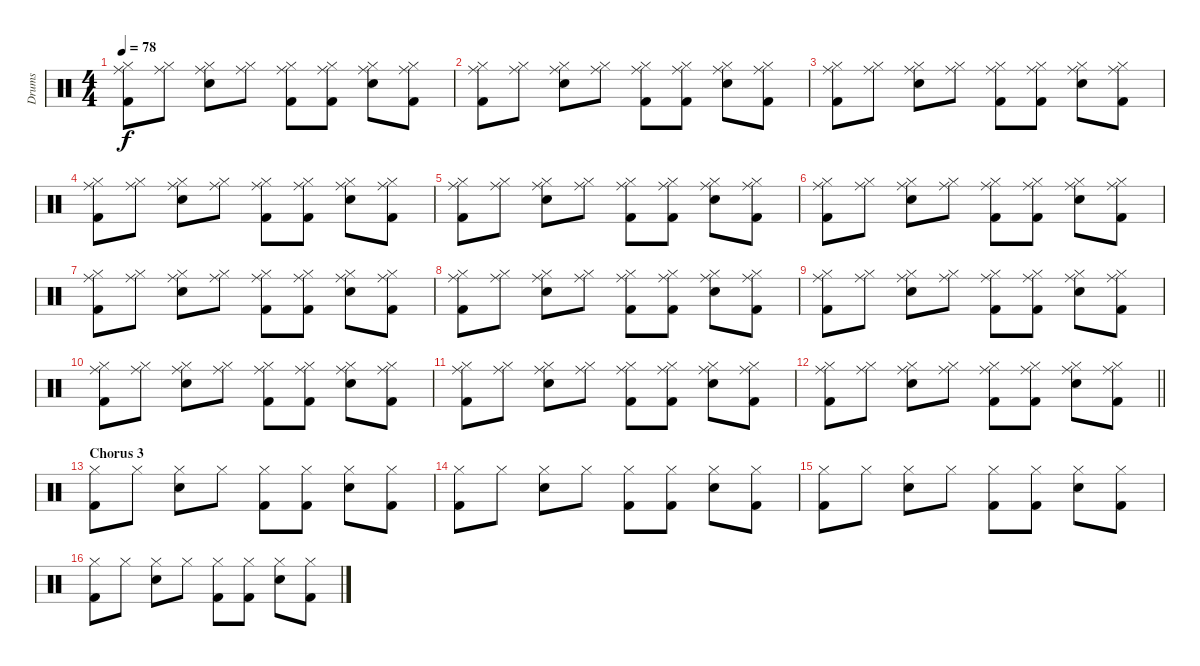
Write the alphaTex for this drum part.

\track ("Drums" "Drums") {instrument percussion}
\staff {score}
\articulation defaults
\ts (4 4)
\tempo 78
\clef neutral
\ks c
("Ride (middle)" "Hi-Hat (closed)" "Kick (hit) 2").8{dy f} ("Ride (middle)" "Hi-Hat (closed)").8 ("Ride (middle)" "Hi-Hat (closed)" "Snare (hit) 2").8 ("Ride (middle)" "Hi-Hat (closed)").8 ("Ride (middle)" "Hi-Hat (closed)" "Kick (hit) 2").8 ("Ride (middle)" "Hi-Hat (closed)" "Kick (hit) 2").8 ("Ride (middle)" "Hi-Hat (closed)" "Snare (hit) 2").8 ("Ride (middle)" "Hi-Hat (closed)" "Kick (hit) 2").8 |
("Ride (middle)" "Hi-Hat (closed)" "Kick (hit) 2").8 ("Ride (middle)" "Hi-Hat (closed)").8 ("Ride (middle)" "Hi-Hat (closed)" "Snare (hit) 2").8 ("Ride (middle)" "Hi-Hat (closed)").8 ("Ride (middle)" "Hi-Hat (closed)" "Kick (hit) 2").8 ("Ride (middle)" "Hi-Hat (closed)" "Kick (hit) 2").8 ("Ride (middle)" "Hi-Hat (closed)" "Snare (hit) 2").8 ("Ride (middle)" "Hi-Hat (closed)" "Kick (hit) 2").8 |
("Ride (middle)" "Hi-Hat (closed)" "Kick (hit) 2").8 ("Ride (middle)" "Hi-Hat (closed)").8 ("Ride (middle)" "Hi-Hat (closed)" "Snare (hit) 2").8 ("Ride (middle)" "Hi-Hat (closed)").8 ("Ride (middle)" "Hi-Hat (closed)" "Kick (hit) 2").8 ("Ride (middle)" "Hi-Hat (closed)" "Kick (hit) 2").8 ("Ride (middle)" "Hi-Hat (closed)" "Snare (hit) 2").8 ("Ride (middle)" "Hi-Hat (closed)" "Kick (hit) 2").8 |
("Ride (middle)" "Hi-Hat (closed)" "Kick (hit) 2").8 ("Ride (middle)" "Hi-Hat (closed)").8 ("Ride (middle)" "Hi-Hat (closed)" "Snare (hit) 2").8 ("Ride (middle)" "Hi-Hat (closed)").8 ("Ride (middle)" "Hi-Hat (closed)" "Kick (hit) 2").8 ("Ride (middle)" "Hi-Hat (closed)" "Kick (hit) 2").8 ("Ride (middle)" "Hi-Hat (closed)" "Snare (hit) 2").8 ("Ride (middle)" "Hi-Hat (closed)" "Kick (hit) 2").8 |
("Ride (middle)" "Hi-Hat (closed)" "Kick (hit) 2").8 ("Ride (middle)" "Hi-Hat (closed)").8 ("Ride (middle)" "Hi-Hat (closed)" "Snare (hit) 2").8 ("Ride (middle)" "Hi-Hat (closed)").8 ("Ride (middle)" "Hi-Hat (closed)" "Kick (hit) 2").8 ("Ride (middle)" "Hi-Hat (closed)" "Kick (hit) 2").8 ("Ride (middle)" "Hi-Hat (closed)" "Snare (hit) 2").8 ("Ride (middle)" "Hi-Hat (closed)" "Kick (hit) 2").8 |
("Ride (middle)" "Hi-Hat (closed)" "Kick (hit) 2").8 ("Ride (middle)" "Hi-Hat (closed)").8 ("Ride (middle)" "Hi-Hat (closed)" "Snare (hit) 2").8 ("Ride (middle)" "Hi-Hat (closed)").8 ("Ride (middle)" "Hi-Hat (closed)" "Kick (hit) 2").8 ("Ride (middle)" "Hi-Hat (closed)" "Kick (hit) 2").8 ("Ride (middle)" "Hi-Hat (closed)" "Snare (hit) 2").8 ("Ride (middle)" "Hi-Hat (closed)" "Kick (hit) 2").8 |
("Ride (middle)" "Hi-Hat (closed)" "Kick (hit) 2").8 ("Ride (middle)" "Hi-Hat (closed)").8 ("Ride (middle)" "Hi-Hat (closed)" "Snare (hit) 2").8 ("Ride (middle)" "Hi-Hat (closed)").8 ("Ride (middle)" "Hi-Hat (closed)" "Kick (hit) 2").8 ("Ride (middle)" "Hi-Hat (closed)" "Kick (hit) 2").8 ("Ride (middle)" "Hi-Hat (closed)" "Snare (hit) 2").8 ("Ride (middle)" "Hi-Hat (closed)" "Kick (hit) 2").8 |
("Ride (middle)" "Hi-Hat (closed)" "Kick (hit) 2").8 ("Ride (middle)" "Hi-Hat (closed)").8 ("Ride (middle)" "Hi-Hat (closed)" "Snare (hit) 2").8 ("Ride (middle)" "Hi-Hat (closed)").8 ("Ride (middle)" "Hi-Hat (closed)" "Kick (hit) 2").8 ("Ride (middle)" "Hi-Hat (closed)" "Kick (hit) 2").8 ("Ride (middle)" "Hi-Hat (closed)" "Snare (hit) 2").8 ("Ride (middle)" "Hi-Hat (closed)" "Kick (hit) 2").8 |
("Ride (middle)" "Hi-Hat (closed)" "Kick (hit) 2").8 ("Ride (middle)" "Hi-Hat (closed)").8 ("Ride (middle)" "Hi-Hat (closed)" "Snare (hit) 2").8 ("Ride (middle)" "Hi-Hat (closed)").8 ("Ride (middle)" "Hi-Hat (closed)" "Kick (hit) 2").8 ("Ride (middle)" "Hi-Hat (closed)" "Kick (hit) 2").8 ("Ride (middle)" "Hi-Hat (closed)" "Snare (hit) 2").8 ("Ride (middle)" "Hi-Hat (closed)" "Kick (hit) 2").8 |
("Ride (middle)" "Hi-Hat (closed)" "Kick (hit) 2").8 ("Ride (middle)" "Hi-Hat (closed)").8 ("Ride (middle)" "Hi-Hat (closed)" "Snare (hit) 2").8 ("Ride (middle)" "Hi-Hat (closed)").8 ("Ride (middle)" "Hi-Hat (closed)" "Kick (hit) 2").8 ("Ride (middle)" "Hi-Hat (closed)" "Kick (hit) 2").8 ("Ride (middle)" "Hi-Hat (closed)" "Snare (hit) 2").8 ("Ride (middle)" "Hi-Hat (closed)" "Kick (hit) 2").8 |
("Ride (middle)" "Hi-Hat (closed)" "Kick (hit) 2").8 ("Ride (middle)" "Hi-Hat (closed)").8 ("Ride (middle)" "Hi-Hat (closed)" "Snare (hit) 2").8 ("Ride (middle)" "Hi-Hat (closed)").8 ("Ride (middle)" "Hi-Hat (closed)" "Kick (hit) 2").8 ("Ride (middle)" "Hi-Hat (closed)" "Kick (hit) 2").8 ("Ride (middle)" "Hi-Hat (closed)" "Snare (hit) 2").8 ("Ride (middle)" "Hi-Hat (closed)" "Kick (hit) 2").8 |
\barLineRight lightlight
("Ride (middle)" "Hi-Hat (closed)" "Kick (hit) 2").8 ("Ride (middle)" "Hi-Hat (closed)").8 ("Ride (middle)" "Hi-Hat (closed)" "Snare (hit) 2").8 ("Ride (middle)" "Hi-Hat (closed)").8 ("Ride (middle)" "Hi-Hat (closed)" "Kick (hit) 2").8 ("Ride (middle)" "Hi-Hat (closed)" "Kick (hit) 2").8 ("Ride (middle)" "Hi-Hat (closed)" "Snare (hit) 2").8 ("Ride (middle)" "Hi-Hat (closed)" "Kick (hit) 2").8 |
\section ("" "Chorus 3")
("Hi-Hat (closed)" "Kick (hit) 2").8 "Hi-Hat (closed)".8 ("Hi-Hat (closed)" "Snare (hit) 2").8 "Hi-Hat (closed)".8 ("Hi-Hat (closed)" "Kick (hit) 2").8 ("Hi-Hat (closed)" "Kick (hit) 2").8 ("Hi-Hat (closed)" "Snare (hit) 2").8 ("Hi-Hat (closed)" "Kick (hit) 2").8 |
("Hi-Hat (closed)" "Kick (hit) 2").8 "Hi-Hat (closed)".8 ("Hi-Hat (closed)" "Snare (hit) 2").8 "Hi-Hat (closed)".8 ("Hi-Hat (closed)" "Kick (hit) 2").8 ("Hi-Hat (closed)" "Kick (hit) 2").8 ("Hi-Hat (closed)" "Snare (hit) 2").8 ("Hi-Hat (closed)" "Kick (hit) 2").8 |
("Hi-Hat (closed)" "Kick (hit) 2").8 "Hi-Hat (closed)".8 ("Hi-Hat (closed)" "Snare (hit) 2").8 "Hi-Hat (closed)".8 ("Hi-Hat (closed)" "Kick (hit) 2").8 ("Hi-Hat (closed)" "Kick (hit) 2").8 ("Hi-Hat (closed)" "Snare (hit) 2").8 ("Hi-Hat (closed)" "Kick (hit) 2").8 |
("Hi-Hat (closed)" "Kick (hit) 2").8 "Hi-Hat (closed)".8 ("Hi-Hat (closed)" "Snare (hit) 2").8 "Hi-Hat (closed)".8 ("Hi-Hat (closed)" "Kick (hit) 2").8 ("Hi-Hat (closed)" "Kick (hit) 2").8 ("Hi-Hat (closed)" "Snare (hit) 2").8 ("Hi-Hat (closed)" "Kick (hit) 2").8
